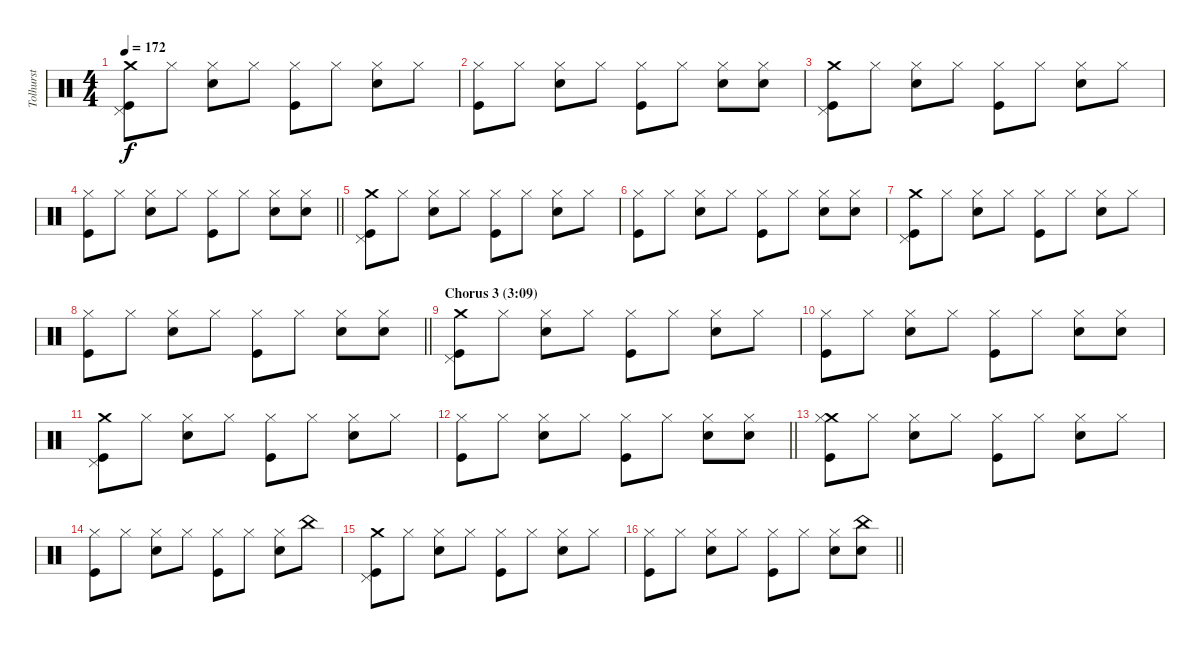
\track ("Tolhurst" "Tolhurst") {instrument percussion}
\staff {score}
\articulation defaults
\ts (4 4)
\tempo 172
\clef neutral
\ks c
("Crash medium (hit)" "Pedal Hi-Hat (hit)" "Kick (hit)").8{dy f} "Hi-Hat (closed)".8 ("Hi-Hat (closed)" "Snare (hit) 2").8 "Hi-Hat (closed)".8 ("Hi-Hat (closed)" "Kick (hit)").8 "Hi-Hat (closed)".8 ("Hi-Hat (closed)" "Snare (hit) 2").8 "Hi-Hat (closed)".8 |
("Hi-Hat (closed)" "Kick (hit)").8 "Hi-Hat (closed)".8 ("Hi-Hat (closed)" "Snare (hit) 2").8 "Hi-Hat (closed)".8 ("Hi-Hat (closed)" "Kick (hit)").8 "Hi-Hat (closed)".8 ("Hi-Hat (closed)" "Snare (hit) 2").8 ("Hi-Hat (closed)" "Snare (hit) 2").8 |
("Crash medium (hit)" "Pedal Hi-Hat (hit)" "Kick (hit)").8 "Hi-Hat (closed)".8 ("Hi-Hat (closed)" "Snare (hit) 2").8 "Hi-Hat (closed)".8 ("Hi-Hat (closed)" "Kick (hit)").8 "Hi-Hat (closed)".8 ("Hi-Hat (closed)" "Snare (hit) 2").8 "Hi-Hat (closed)".8 |
\barLineRight lightlight
("Hi-Hat (closed)" "Kick (hit)").8 "Hi-Hat (closed)".8 ("Hi-Hat (closed)" "Snare (hit) 2").8 "Hi-Hat (closed)".8 ("Hi-Hat (closed)" "Kick (hit)").8 "Hi-Hat (closed)".8 ("Hi-Hat (closed)" "Snare (hit) 2").8 ("Hi-Hat (closed)" "Snare (hit) 2").8 |
("Crash medium (hit)" "Pedal Hi-Hat (hit)" "Kick (hit)").8 "Hi-Hat (closed)".8 ("Hi-Hat (closed)" "Snare (hit) 2").8 "Hi-Hat (closed)".8 ("Hi-Hat (closed)" "Kick (hit)").8 "Hi-Hat (closed)".8 ("Hi-Hat (closed)" "Snare (hit) 2").8 "Hi-Hat (closed)".8 |
("Hi-Hat (closed)" "Kick (hit)").8 "Hi-Hat (closed)".8 ("Hi-Hat (closed)" "Snare (hit) 2").8 "Hi-Hat (closed)".8 ("Hi-Hat (closed)" "Kick (hit)").8 "Hi-Hat (closed)".8 ("Hi-Hat (closed)" "Snare (hit) 2").8 ("Hi-Hat (closed)" "Snare (hit) 2").8 |
("Crash medium (hit)" "Pedal Hi-Hat (hit)" "Kick (hit)").8 "Hi-Hat (closed)".8 ("Hi-Hat (closed)" "Snare (hit) 2").8 "Hi-Hat (closed)".8 ("Hi-Hat (closed)" "Kick (hit)").8 "Hi-Hat (closed)".8 ("Hi-Hat (closed)" "Snare (hit) 2").8 "Hi-Hat (closed)".8 |
\barLineRight lightlight
("Hi-Hat (closed)" "Kick (hit)").8 "Hi-Hat (closed)".8 ("Hi-Hat (closed)" "Snare (hit) 2").8 "Hi-Hat (closed)".8 ("Hi-Hat (closed)" "Kick (hit)").8 "Hi-Hat (closed)".8 ("Hi-Hat (closed)" "Snare (hit) 2").8 ("Hi-Hat (closed)" "Snare (hit) 2").8 |
\section ("" "Chorus 3 (3:09)")
("Crash medium (hit)" "Pedal Hi-Hat (hit)" "Kick (hit)").8 "Hi-Hat (closed)".8 ("Hi-Hat (closed)" "Snare (hit) 2").8 "Hi-Hat (closed)".8 ("Hi-Hat (closed)" "Kick (hit)").8 "Hi-Hat (closed)".8 ("Hi-Hat (closed)" "Snare (hit) 2").8 "Hi-Hat (closed)".8 |
("Hi-Hat (closed)" "Kick (hit)").8 "Hi-Hat (closed)".8 ("Hi-Hat (closed)" "Snare (hit) 2").8 "Hi-Hat (closed)".8 ("Hi-Hat (closed)" "Kick (hit)").8 "Hi-Hat (closed)".8 ("Hi-Hat (closed)" "Snare (hit) 2").8 ("Hi-Hat (closed)" "Snare (hit) 2").8 |
("Crash medium (hit)" "Pedal Hi-Hat (hit)" "Kick (hit)").8 "Hi-Hat (closed)".8 ("Hi-Hat (closed)" "Snare (hit) 2").8 "Hi-Hat (closed)".8 ("Hi-Hat (closed)" "Kick (hit)").8 "Hi-Hat (closed)".8 ("Hi-Hat (closed)" "Snare (hit) 2").8 "Hi-Hat (closed)".8 |
\barLineRight lightlight
("Hi-Hat (closed)" "Kick (hit)").8 "Hi-Hat (closed)".8 ("Hi-Hat (closed)" "Snare (hit) 2").8 "Hi-Hat (closed)".8 ("Hi-Hat (closed)" "Kick (hit)").8 "Hi-Hat (closed)".8 ("Hi-Hat (closed)" "Snare (hit) 2").8 ("Hi-Hat (closed)" "Snare (hit) 2").8 |
("Crash medium (hit)" "Hi-Hat (closed)" "Kick (hit)").8 "Hi-Hat (closed)".8 ("Hi-Hat (closed)" "Snare (hit) 2").8 "Hi-Hat (closed)".8 ("Hi-Hat (closed)" "Kick (hit)").8 "Hi-Hat (closed)".8 ("Hi-Hat (closed)" "Snare (hit) 2").8 "Hi-Hat (closed)".8 |
("Hi-Hat (closed)" "Kick (hit)").8 "Hi-Hat (closed)".8 ("Hi-Hat (closed)" "Snare (hit) 2").8 "Hi-Hat (closed)".8 ("Hi-Hat (closed)" "Kick (hit)").8 "Hi-Hat (closed)".8 ("Hi-Hat (closed)" "Snare (hit) 2").8 "China (hit)".8 |
("Crash medium (hit)" "Pedal Hi-Hat (hit)" "Kick (hit)").8 "Hi-Hat (closed)".8 ("Hi-Hat (closed)" "Snare (hit) 2").8 "Hi-Hat (closed)".8 ("Hi-Hat (closed)" "Kick (hit)").8 "Hi-Hat (closed)".8 ("Hi-Hat (closed)" "Snare (hit) 2").8 "Hi-Hat (closed)".8 |
\barLineRight lightlight
("Hi-Hat (closed)" "Kick (hit)").8 "Hi-Hat (closed)".8 ("Hi-Hat (closed)" "Snare (hit) 2").8 "Hi-Hat (closed)".8 ("Hi-Hat (closed)" "Kick (hit)").8 "Hi-Hat (closed)".8 ("Hi-Hat (closed)" "Snare (hit) 2").8 ("China (hit)" "Snare (hit) 2").8
